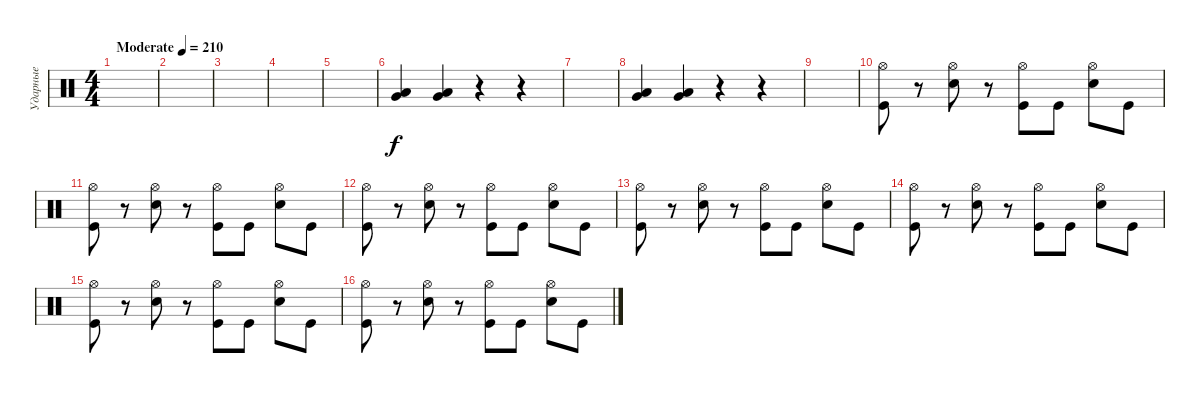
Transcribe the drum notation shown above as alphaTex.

\track ("Ударные" "Ударные") {instrument percussion}
\staff {score}
\articulation defaults
\ts (4 4)
\tempo (210 "Moderate")
\clef neutral
\ks c
|
|
|
|
|
("Very Low Tom (hit)" "Low Floor Tom (hit)").4 ("Very Low Tom (hit)" "Low Floor Tom (hit)").4 r.4 r.4 |
|
("Very Low Tom (hit)" "Low Floor Tom (hit)").4 ("Very Low Tom (hit)" "Low Floor Tom (hit)").4 r.4 r.4 |
|
("Hi-Hat (open)" "Kick (hit)").8 r.8 ("Hi-Hat (open)" "Electric Snare (hit)").8 r.8 ("Hi-Hat (open)" "Kick (hit)").8 "Kick (hit)".8 ("Hi-Hat (open)" "Electric Snare (hit)").8 "Kick (hit)".8 |
("Hi-Hat (open)" "Kick (hit)").8 r.8 ("Hi-Hat (open)" "Electric Snare (hit)").8 r.8 ("Hi-Hat (open)" "Kick (hit)").8 "Kick (hit)".8 ("Hi-Hat (open)" "Electric Snare (hit)").8 "Kick (hit)".8 |
("Hi-Hat (open)" "Kick (hit)").8 r.8 ("Hi-Hat (open)" "Electric Snare (hit)").8 r.8 ("Hi-Hat (open)" "Kick (hit)").8 "Kick (hit)".8 ("Hi-Hat (open)" "Electric Snare (hit)").8 "Kick (hit)".8 |
("Hi-Hat (open)" "Kick (hit)").8 r.8 ("Hi-Hat (open)" "Electric Snare (hit)").8 r.8 ("Hi-Hat (open)" "Kick (hit)").8 "Kick (hit)".8 ("Hi-Hat (open)" "Electric Snare (hit)").8 "Kick (hit)".8 |
("Hi-Hat (open)" "Kick (hit)").8 r.8 ("Hi-Hat (open)" "Electric Snare (hit)").8 r.8 ("Hi-Hat (open)" "Kick (hit)").8 "Kick (hit)".8 ("Hi-Hat (open)" "Electric Snare (hit)").8 "Kick (hit)".8 |
("Hi-Hat (open)" "Kick (hit)").8 r.8 ("Hi-Hat (open)" "Electric Snare (hit)").8 r.8 ("Hi-Hat (open)" "Kick (hit)").8 "Kick (hit)".8 ("Hi-Hat (open)" "Electric Snare (hit)").8 "Kick (hit)".8 |
("Hi-Hat (open)" "Kick (hit)").8 r.8 ("Hi-Hat (open)" "Electric Snare (hit)").8 r.8 ("Hi-Hat (open)" "Kick (hit)").8 "Kick (hit)".8 ("Hi-Hat (open)" "Electric Snare (hit)").8 "Kick (hit)".8
